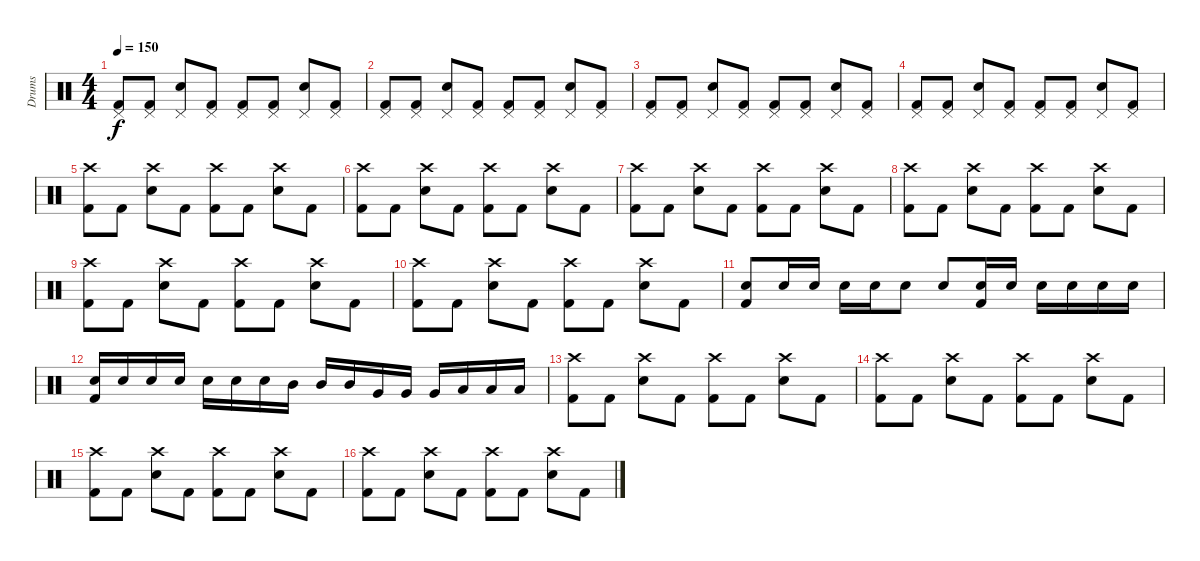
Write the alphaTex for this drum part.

\track ("Drums" "Drums") {instrument percussion}
\staff
\articulation defaults
\ts (4 4)
\tempo 150
\clef neutral
\ks c
("Pedal Hi-Hat (hit)" "Kick (hit) 2").8{dy f} ("Pedal Hi-Hat (hit)" "Kick (hit) 2").8 ("Pedal Hi-Hat (hit)" "Snare (hit) 2").8 ("Pedal Hi-Hat (hit)" "Kick (hit) 2").8 ("Pedal Hi-Hat (hit)" "Kick (hit) 2").8 ("Pedal Hi-Hat (hit)" "Kick (hit) 2").8 ("Pedal Hi-Hat (hit)" "Snare (hit) 2").8 ("Pedal Hi-Hat (hit)" "Kick (hit) 2").8 |
("Pedal Hi-Hat (hit)" "Kick (hit) 2").8 ("Pedal Hi-Hat (hit)" "Kick (hit) 2").8 ("Pedal Hi-Hat (hit)" "Snare (hit) 2").8 ("Pedal Hi-Hat (hit)" "Kick (hit) 2").8 ("Pedal Hi-Hat (hit)" "Kick (hit) 2").8 ("Pedal Hi-Hat (hit)" "Kick (hit) 2").8 ("Pedal Hi-Hat (hit)" "Snare (hit) 2").8 ("Pedal Hi-Hat (hit)" "Kick (hit) 2").8 |
("Pedal Hi-Hat (hit)" "Kick (hit) 2").8 ("Pedal Hi-Hat (hit)" "Kick (hit) 2").8 ("Pedal Hi-Hat (hit)" "Snare (hit) 2").8 ("Pedal Hi-Hat (hit)" "Kick (hit) 2").8 ("Pedal Hi-Hat (hit)" "Kick (hit) 2").8 ("Pedal Hi-Hat (hit)" "Kick (hit) 2").8 ("Pedal Hi-Hat (hit)" "Snare (hit) 2").8 ("Pedal Hi-Hat (hit)" "Kick (hit) 2").8 |
("Pedal Hi-Hat (hit)" "Kick (hit) 2").8 ("Pedal Hi-Hat (hit)" "Kick (hit) 2").8 ("Pedal Hi-Hat (hit)" "Snare (hit) 2").8 ("Pedal Hi-Hat (hit)" "Kick (hit) 2").8 ("Pedal Hi-Hat (hit)" "Kick (hit) 2").8 ("Pedal Hi-Hat (hit)" "Kick (hit) 2").8 ("Pedal Hi-Hat (hit)" "Snare (hit) 2").8 ("Pedal Hi-Hat (hit)" "Kick (hit) 2").8 |
("Crash high (hit)" "Kick (hit) 2").8 "Kick (hit) 2".8 ("Crash high (hit)" "Snare (hit) 2").8 "Kick (hit) 2".8 ("Crash high (hit)" "Kick (hit) 2").8 "Kick (hit) 2".8 ("Crash high (hit)" "Snare (hit) 2").8 "Kick (hit) 2".8 |
("Crash high (hit)" "Kick (hit) 2").8 "Kick (hit) 2".8 ("Crash high (hit)" "Snare (hit) 2").8 "Kick (hit) 2".8 ("Crash high (hit)" "Kick (hit) 2").8 "Kick (hit) 2".8 ("Crash high (hit)" "Snare (hit) 2").8 "Kick (hit) 2".8 |
("Crash high (hit)" "Kick (hit) 2").8 "Kick (hit) 2".8 ("Crash high (hit)" "Snare (hit) 2").8 "Kick (hit) 2".8 ("Crash high (hit)" "Kick (hit) 2").8 "Kick (hit) 2".8 ("Crash high (hit)" "Snare (hit) 2").8 "Kick (hit) 2".8 |
("Crash high (hit)" "Kick (hit) 2").8 "Kick (hit) 2".8 ("Crash high (hit)" "Snare (hit) 2").8 "Kick (hit) 2".8 ("Crash high (hit)" "Kick (hit) 2").8 "Kick (hit) 2".8 ("Crash high (hit)" "Snare (hit) 2").8 "Kick (hit) 2".8 |
("Crash high (hit)" "Kick (hit) 2").8 "Kick (hit) 2".8 ("Crash high (hit)" "Snare (hit) 2").8 "Kick (hit) 2".8 ("Crash high (hit)" "Kick (hit) 2").8 "Kick (hit) 2".8 ("Crash high (hit)" "Snare (hit) 2").8 "Kick (hit) 2".8 |
("Crash high (hit)" "Kick (hit) 2").8 "Kick (hit) 2".8 ("Crash high (hit)" "Snare (hit) 2").8 "Kick (hit) 2".8 ("Crash high (hit)" "Kick (hit) 2").8 "Kick (hit) 2".8 ("Crash high (hit)" "Snare (hit) 2").8 "Kick (hit) 2".8 |
("Snare (hit) 2" "Kick (hit) 2").8 "Snare (hit) 2".16 "Snare (hit) 2".16 "Snare (hit) 2".16 "Snare (hit) 2".16 "Snare (hit) 2".8 "Snare (hit) 2".8 ("Snare (hit) 2" "Kick (hit) 2").16 "Snare (hit) 2".16 "Snare (hit) 2".16 "Snare (hit) 2".16 "Snare (hit) 2".16 "Snare (hit) 2".16 |
("Snare (hit) 2" "Kick (hit) 2").16 "Snare (hit) 2".16 "Snare (hit) 2".16 "Snare (hit) 2".16 "Snare (hit) 2".16 "Snare (hit) 2".16 "Snare (hit) 2".16 "Mid Tom (hit)".16 "Mid Tom (hit)".16 "Mid Tom (hit)".16 "Very Low Tom (hit)".16 "Very Low Tom (hit)".16 "Very Low Tom (hit)".16 "Low Floor Tom (hit)".16 "Low Floor Tom (hit)".16 "Low Floor Tom (hit)".16 |
("Crash high (hit)" "Kick (hit) 2").8 "Kick (hit) 2".8 ("Crash high (hit)" "Snare (hit) 2").8 "Kick (hit) 2".8 ("Crash high (hit)" "Kick (hit) 2").8 "Kick (hit) 2".8 ("Crash high (hit)" "Snare (hit) 2").8 "Kick (hit) 2".8 |
("Crash high (hit)" "Kick (hit) 2").8 "Kick (hit) 2".8 ("Crash high (hit)" "Snare (hit) 2").8 "Kick (hit) 2".8 ("Crash high (hit)" "Kick (hit) 2").8 "Kick (hit) 2".8 ("Crash high (hit)" "Snare (hit) 2").8 "Kick (hit) 2".8 |
("Crash high (hit)" "Kick (hit) 2").8 "Kick (hit) 2".8 ("Crash high (hit)" "Snare (hit) 2").8 "Kick (hit) 2".8 ("Crash high (hit)" "Kick (hit) 2").8 "Kick (hit) 2".8 ("Crash high (hit)" "Snare (hit) 2").8 "Kick (hit) 2".8 |
("Crash high (hit)" "Kick (hit) 2").8 "Kick (hit) 2".8 ("Crash high (hit)" "Snare (hit) 2").8 "Kick (hit) 2".8 ("Crash high (hit)" "Kick (hit) 2").8 "Kick (hit) 2".8 ("Crash high (hit)" "Snare (hit) 2").8 "Kick (hit) 2".8
